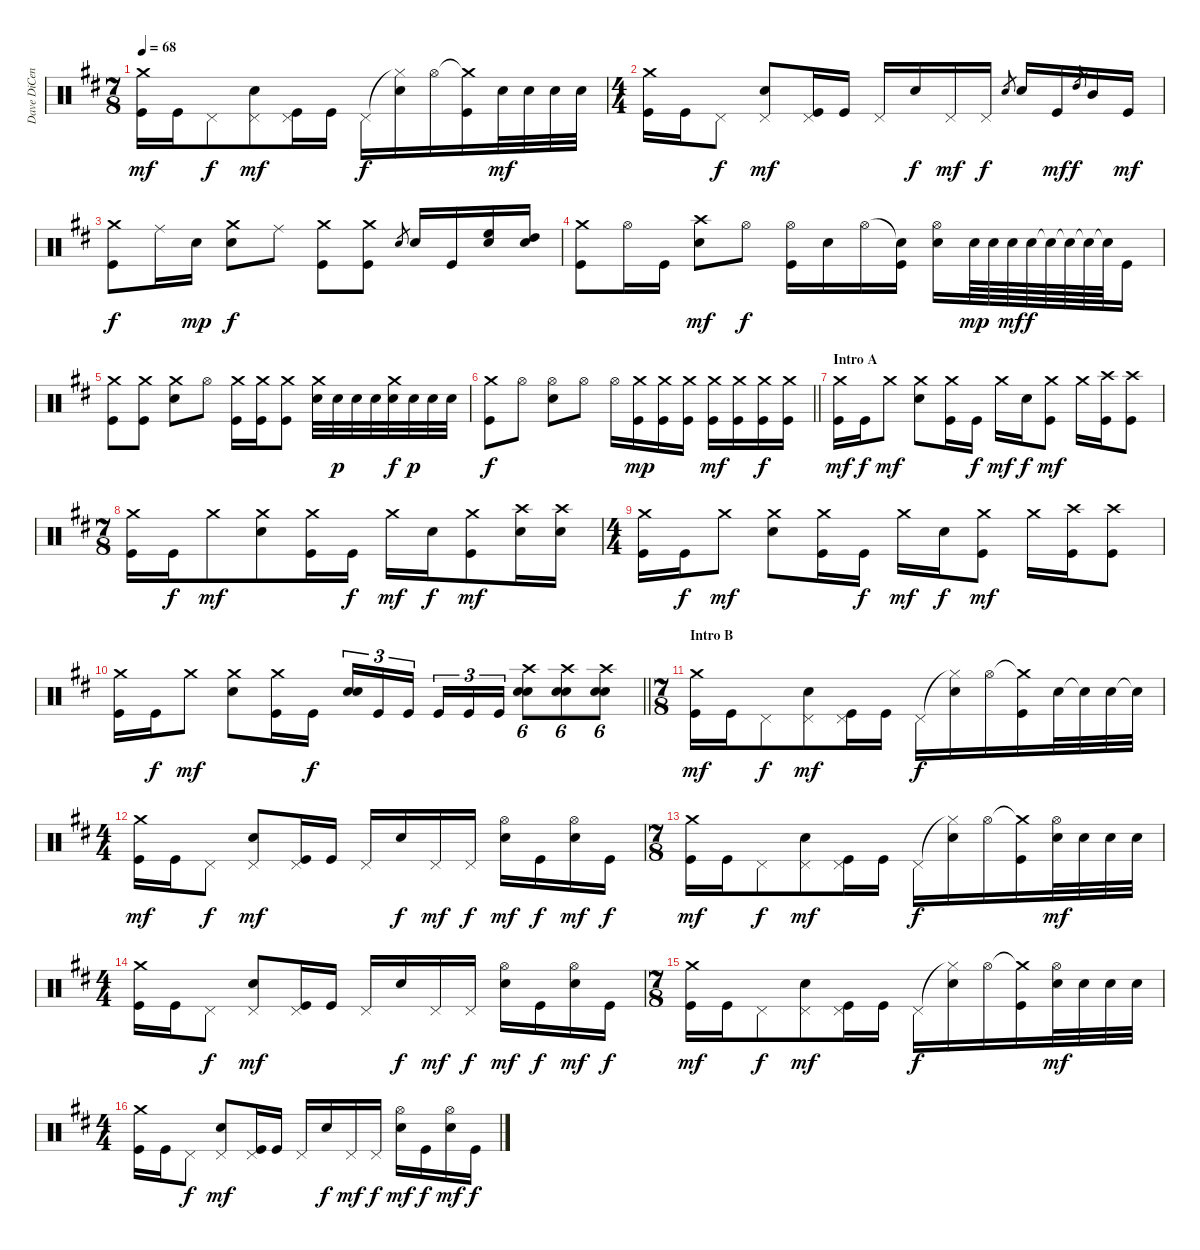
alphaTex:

\track ("Dave DiCenso" "Dave DiCen") {instrument percussion}
\staff {score}
\articulation defaults
\ts (7 8)
\tempo 68
\clef neutral
\ks d
("Crash medium (hit)" "Kick (hit)").16{dy mf} "Kick (hit)".16 "Pedal Hi-Hat (hit)".8{dy f} ("Pedal Hi-Hat (hit)" "Electric Snare (hit)").8{dy mf} ("Pedal Hi-Hat (hit)" "Kick (hit)").16 "Kick (hit)".16 "Pedal Hi-Hat (hit)".16{dy f} ("Hi-Hat (closed)"{t} "Electric Snare (hit)").16 "Hi-Hat (open)".16 ("Crash medium (hit)"{t} "Kick (hit)").16 "Electric Snare (hit)".32{dy mf} "Electric Snare (hit)".32 "Electric Snare (hit)".32 "Electric Snare (hit)".32 |
\ts (4 4)
("Crash medium (hit)" "Kick (hit)").16 "Kick (hit)".16 "Pedal Hi-Hat (hit)".8{dy f} ("Pedal Hi-Hat (hit)" "Electric Snare (hit)").8{dy mf} ("Pedal Hi-Hat (hit)" "Kick (hit)").16 "Kick (hit)".16 "Pedal Hi-Hat (hit)".16 "Electric Snare (hit)".16{dy f} "Pedal Hi-Hat (hit)".16{dy mf} "Pedal Hi-Hat (hit)".16{dy f} "Electric Snare (hit)".8{gr} "Electric Snare (hit)".16 "Kick (hit)".16{dy mf} "High Tom (hit)".8{gr dy f} "Mid Tom (hit)".16 "Kick (hit)".16{dy mf} |
("Crash medium (hit)" "Kick (hit)").8{dy f} "Ride (middle)".16 "Electric Snare (hit)".16{dy mp} ("Crash medium (hit)" "Electric Snare (hit)").8{dy f} "Ride (middle)".8 ("Crash medium (hit)" "Kick (hit)").8 ("Crash medium (hit)" "Kick (hit)").8 "Electric Snare (hit)".8{gr} "Electric Snare (hit)".16 "Kick (hit)".16 ("Electric Snare (hit)" "High Floor Tom (hit)").16 ("Electric Snare (hit)" "High Tom (hit)").16 |
("Crash medium (hit)" "Kick (hit)").8 "Hi-Hat (open)".16 "Kick (hit)".16 ("Crash high (hit)" "Electric Snare (hit)").8{dy mf} "Hi-Hat (open)".8{dy f} ("Hi-Hat (open)" "Kick (hit)").16 "Electric Snare (hit)".16 "Hi-Hat (open)".16 ("Snare (hit)"{t} "Kick (hit)").16 ("Hi-Hat (open)" "Electric Snare (hit)").16 "Electric Snare (hit)".64{dy mp} "Electric Snare (hit)".64 "Electric Snare (hit)".64{dy mf} "Electric Snare (hit)".64{dy f} "Electric Snare (hit)"{t}.64 "Electric Snare (hit)"{t}.64 "Electric Snare (hit)"{t}.64 "Electric Snare (hit)"{t}.64 "Kick (hit)".16 |
("Crash medium (hit)" "Kick (hit)").8 ("Crash medium (hit)" "Kick (hit)").8 ("Crash medium (hit)" "Electric Snare (hit)").8 "Hi-Hat (open)".8 ("Crash medium (hit)" "Kick (hit)").16 ("Crash medium (hit)" "Kick (hit)").16 ("Crash medium (hit)" "Kick (hit)").8 ("Crash medium (hit)" "Electric Snare (hit)").32 "Electric Snare (hit)".32{dy p} "Electric Snare (hit)".32 "Electric Snare (hit)".32 ("Crash medium (hit)" "Electric Snare (hit)").32{dy f} "Electric Snare (hit)".32{dy p} "Electric Snare (hit)".32 "Electric Snare (hit)".32 |
\barLineRight lightlight
("Crash medium (hit)" "Kick (hit)").8{dy f} "Hi-Hat (open)".8 ("Hi-Hat (open)" "Electric Snare (hit)").8 "Hi-Hat (open)".8 "Hi-Hat (open)".16 ("Crash medium (hit)" "Kick (hit)").16{dy mp} ("Crash medium (hit)" "Kick (hit)").16 ("Crash medium (hit)" "Kick (hit)").16 ("Crash medium (hit)" "Kick (hit)").16{dy mf} ("Crash medium (hit)" "Kick (hit)").16 ("Crash medium (hit)" "Kick (hit)").16{dy f} ("Crash medium (hit)" "Kick (hit)").16 |
\section ("" "Intro A")
("Crash medium (hit)" "Kick (hit)").16{dy mf} "Kick (hit)".16{dy f} "Crash medium (hit)".8{dy mf} ("Crash medium (hit)" "Electric Snare (hit)").8 ("Crash medium (hit)" "Kick (hit)").16 "Kick (hit)".16{dy f} "Crash medium (hit)".16{dy mf} "Electric Snare (hit)".16{dy f} ("Crash medium (hit)" "Kick (hit)").8{dy mf} "Crash medium (hit)".16 ("Crash high (hit)" "Kick (hit)").16 ("Crash high (hit)" "Kick (hit)").8 |
\ts (7 8)
("Crash medium (hit)" "Kick (hit)").16 "Kick (hit)".16{dy f} "Crash medium (hit)".8{dy mf} ("Crash medium (hit)" "Electric Snare (hit)").8 ("Crash medium (hit)" "Kick (hit)").16 "Kick (hit)".16{dy f} "Crash medium (hit)".16{dy mf} "Electric Snare (hit)".16{dy f} ("Crash medium (hit)" "Kick (hit)").8{dy mf} ("Crash high (hit)" "Electric Snare (hit)").16 ("Crash high (hit)" "Electric Snare (hit)").16 |
\ts (4 4)
("Crash medium (hit)" "Kick (hit)").16 "Kick (hit)".16{dy f} "Crash medium (hit)".8{dy mf} ("Crash medium (hit)" "Electric Snare (hit)").8 ("Crash medium (hit)" "Kick (hit)").16 "Kick (hit)".16{dy f} "Crash medium (hit)".16{dy mf} "Electric Snare (hit)".16{dy f} ("Crash medium (hit)" "Kick (hit)").8{dy mf} "Crash medium (hit)".16 ("Crash high (hit)" "Kick (hit)").16 ("Crash high (hit)" "Kick (hit)").8 |
\barLineRight lightlight
("Crash medium (hit)" "Kick (hit)").16 "Kick (hit)".16{dy f} "Crash medium (hit)".8{dy mf} ("Crash medium (hit)" "Electric Snare (hit)").8 ("Crash medium (hit)" "Kick (hit)").16 "Kick (hit)".16{dy f} ("Electric Snare (hit)" "Electric Snare (hit)").16{tu (3 2)} "Kick (hit)".16{tu (3 2)} "Kick (hit)".16{tu (3 2) beam splitsecondary} "Kick (hit)".16{tu (3 2)} "Kick (hit)".16{tu (3 2)} "Kick (hit)".16{tu (3 2)} ("Crash high (hit)" "Electric Snare (hit)" "Electric Snare (hit)").8{tu (6 4)} ("Crash high (hit)" "Electric Snare (hit)" "Electric Snare (hit)").8{tu (6 4)} ("Crash high (hit)" "Electric Snare (hit)" "Electric Snare (hit)").8{tu (6 4)} |
\ts (7 8)
\section ("" "Intro B")
("Crash medium (hit)" "Kick (hit)").16{dy mf} "Kick (hit)".16 "Pedal Hi-Hat (hit)".8{dy f} ("Pedal Hi-Hat (hit)" "Electric Snare (hit)").8{dy mf} ("Pedal Hi-Hat (hit)" "Kick (hit)").16 "Kick (hit)".16 "Pedal Hi-Hat (hit)".16{dy f} ("Hi-Hat (closed)"{t} "Electric Snare (hit)").16 "Hi-Hat (open)".16 ("Crash medium (hit)"{t} "Kick (hit)").16 "Electric Snare (hit)".32 "Electric Snare (hit)"{t}.32 "Electric Snare (hit)".32 "Snare (hit)"{t}.32 |
\ts (4 4)
("Crash medium (hit)" "Kick (hit)").16{dy mf} "Kick (hit)".16 "Pedal Hi-Hat (hit)".8{dy f} ("Pedal Hi-Hat (hit)" "Electric Snare (hit)").8{dy mf} ("Pedal Hi-Hat (hit)" "Kick (hit)").16 "Kick (hit)".16 "Pedal Hi-Hat (hit)".16 "Electric Snare (hit)".16{dy f} "Pedal Hi-Hat (hit)".16{dy mf} "Pedal Hi-Hat (hit)".16{dy f} ("Hi-Hat (open)" "Electric Snare (hit)").16{dy mf} "Kick (hit)".16{dy f} ("Hi-Hat (open)" "Electric Snare (hit)").16{dy mf} "Kick (hit)".16{dy f} |
\ts (7 8)
("Crash medium (hit)" "Kick (hit)").16{dy mf} "Kick (hit)".16 "Pedal Hi-Hat (hit)".8{dy f} ("Pedal Hi-Hat (hit)" "Electric Snare (hit)").8{dy mf} ("Pedal Hi-Hat (hit)" "Kick (hit)").16 "Kick (hit)".16 "Pedal Hi-Hat (hit)".16{dy f} ("Hi-Hat (closed)"{t} "Electric Snare (hit)").16 "Hi-Hat (open)".16 ("Crash medium (hit)"{t} "Kick (hit)").16 ("Electric Snare (hit)" "Hi-Hat (open)").32{dy mf} "Electric Snare (hit)".32 "Electric Snare (hit)".32 "Electric Snare (hit)".32 |
\ts (4 4)
("Crash medium (hit)" "Kick (hit)").16 "Kick (hit)".16 "Pedal Hi-Hat (hit)".8{dy f} ("Pedal Hi-Hat (hit)" "Electric Snare (hit)").8{dy mf} ("Pedal Hi-Hat (hit)" "Kick (hit)").16 "Kick (hit)".16 "Pedal Hi-Hat (hit)".16 "Electric Snare (hit)".16{dy f} "Pedal Hi-Hat (hit)".16{dy mf} "Pedal Hi-Hat (hit)".16{dy f} ("Hi-Hat (open)" "Electric Snare (hit)").16{dy mf} "Kick (hit)".16{dy f} ("Hi-Hat (open)" "Electric Snare (hit)").16{dy mf} "Kick (hit)".16{dy f} |
\ts (7 8)
("Crash medium (hit)" "Kick (hit)").16{dy mf} "Kick (hit)".16 "Pedal Hi-Hat (hit)".8{dy f} ("Pedal Hi-Hat (hit)" "Electric Snare (hit)").8{dy mf} ("Pedal Hi-Hat (hit)" "Kick (hit)").16 "Kick (hit)".16 "Pedal Hi-Hat (hit)".16{dy f} ("Hi-Hat (closed)"{t} "Electric Snare (hit)").16 "Hi-Hat (open)".16 ("Crash medium (hit)"{t} "Kick (hit)").16 ("Electric Snare (hit)" "Hi-Hat (open)").32{dy mf} "Electric Snare (hit)".32 "Electric Snare (hit)".32 "Electric Snare (hit)".32 |
\ts (4 4)
("Crash medium (hit)" "Kick (hit)").16 "Kick (hit)".16 "Pedal Hi-Hat (hit)".8{dy f} ("Pedal Hi-Hat (hit)" "Electric Snare (hit)").8{dy mf} ("Pedal Hi-Hat (hit)" "Kick (hit)").16 "Kick (hit)".16 "Pedal Hi-Hat (hit)".16 "Electric Snare (hit)".16{dy f} "Pedal Hi-Hat (hit)".16{dy mf} "Pedal Hi-Hat (hit)".16{dy f} ("Hi-Hat (open)" "Electric Snare (hit)").16{dy mf} "Kick (hit)".16{dy f} ("Hi-Hat (open)" "Electric Snare (hit)").16{dy mf} "Kick (hit)".16{dy f}
